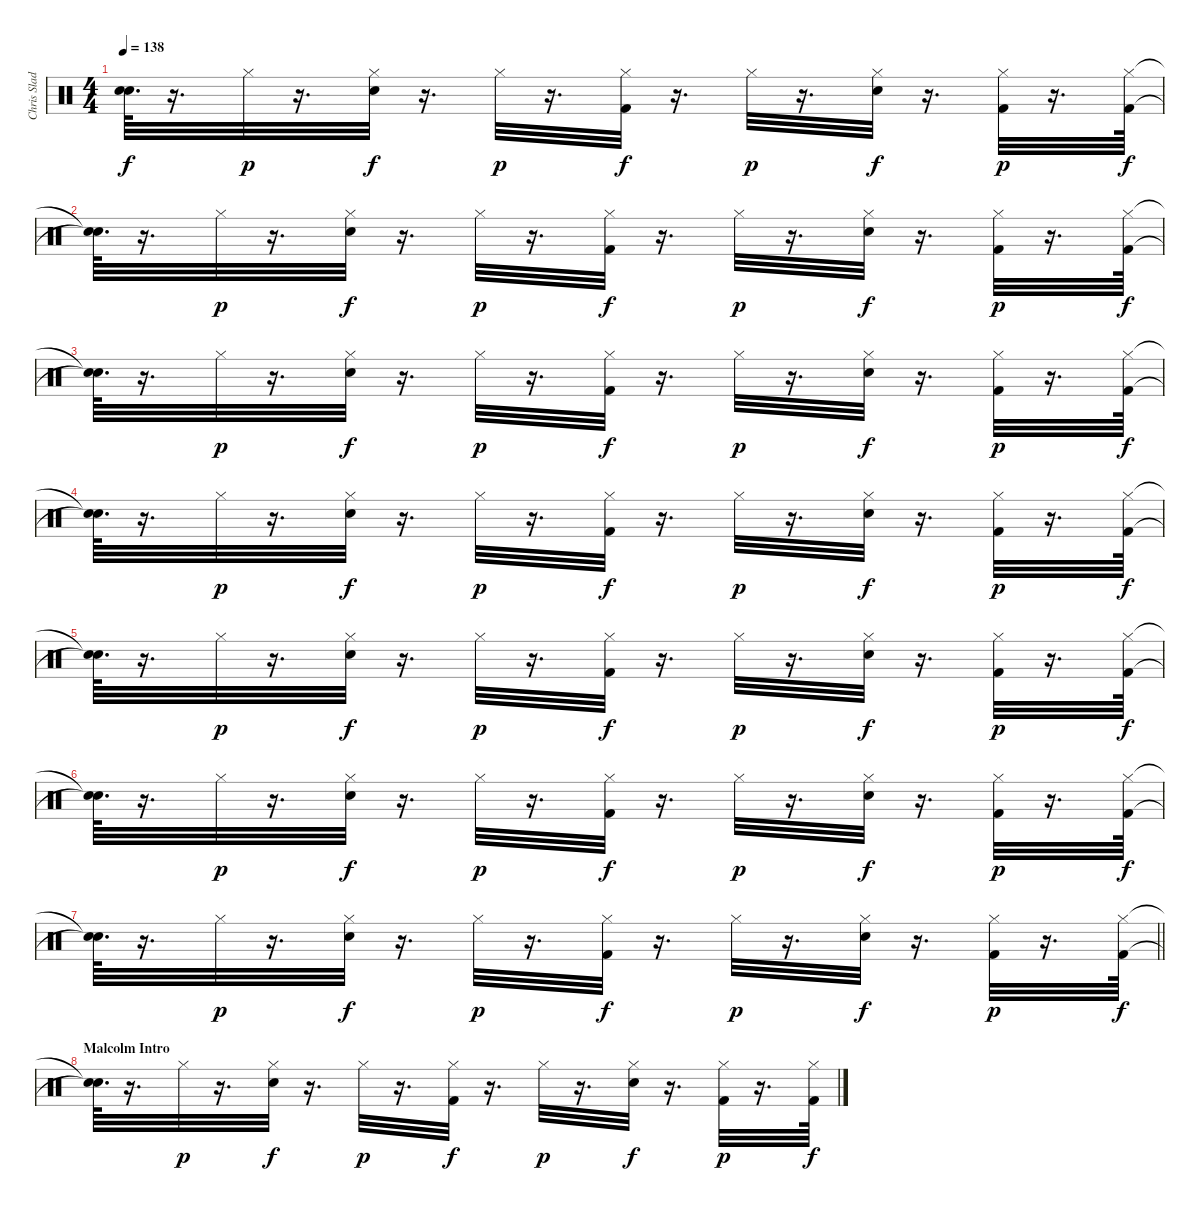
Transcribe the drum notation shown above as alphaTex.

\track ("Chris Slade" "Chris Slad") {instrument percussion}
\staff {score}
\articulation defaults
\ts (4 4)
\tempo 138
\clef neutral
\ks c
("Snare (hit)"{t} "Snare (hit)"{t}).64{d dy f} r.16{d} "Hi-Hat (closed)".32{dy p} r.16{d} ("Hi-Hat (closed)" "Electric Snare (hit)").32{dy f} r.16{d} "Hi-Hat (closed)".32{dy p} r.16{d} ("Hi-Hat (closed)" "Kick (hit) 2").32{dy f} r.16{d} "Hi-Hat (closed)".32{dy p} r.16{d} ("Hi-Hat (closed)" "Electric Snare (hit)").32{dy f} r.16{d} ("Hi-Hat (closed)" "Kick (hit) 2").32{dy p} r.16{d} ("Hi-Hat (closed)" "Kick (hit) 2").64{dy f} |
("Snare (hit)"{t} "Snare (hit)"{t}).64{d} r.16{d} "Hi-Hat (closed)".32{dy p} r.16{d} ("Hi-Hat (closed)" "Electric Snare (hit)").32{dy f} r.16{d} "Hi-Hat (closed)".32{dy p} r.16{d} ("Hi-Hat (closed)" "Kick (hit) 2").32{dy f} r.16{d} "Hi-Hat (closed)".32{dy p} r.16{d} ("Hi-Hat (closed)" "Electric Snare (hit)").32{dy f} r.16{d} ("Hi-Hat (closed)" "Kick (hit) 2").32{dy p} r.16{d} ("Hi-Hat (closed)" "Kick (hit) 2").64{dy f} |
("Snare (hit)"{t} "Snare (hit)"{t}).64{d} r.16{d} "Hi-Hat (closed)".32{dy p} r.16{d} ("Hi-Hat (closed)" "Electric Snare (hit)").32{dy f} r.16{d} "Hi-Hat (closed)".32{dy p} r.16{d} ("Hi-Hat (closed)" "Kick (hit) 2").32{dy f} r.16{d} "Hi-Hat (closed)".32{dy p} r.16{d} ("Hi-Hat (closed)" "Electric Snare (hit)").32{dy f} r.16{d} ("Hi-Hat (closed)" "Kick (hit) 2").32{dy p} r.16{d} ("Hi-Hat (closed)" "Kick (hit) 2").64{dy f} |
("Snare (hit)"{t} "Snare (hit)"{t}).64{d} r.16{d} "Hi-Hat (closed)".32{dy p} r.16{d} ("Hi-Hat (closed)" "Electric Snare (hit)").32{dy f} r.16{d} "Hi-Hat (closed)".32{dy p} r.16{d} ("Hi-Hat (closed)" "Kick (hit) 2").32{dy f} r.16{d} "Hi-Hat (closed)".32{dy p} r.16{d} ("Hi-Hat (closed)" "Electric Snare (hit)").32{dy f} r.16{d} ("Hi-Hat (closed)" "Kick (hit) 2").32{dy p} r.16{d} ("Hi-Hat (closed)" "Kick (hit) 2").64{dy f} |
("Snare (hit)"{t} "Snare (hit)"{t}).64{d} r.16{d} "Hi-Hat (closed)".32{dy p} r.16{d} ("Hi-Hat (closed)" "Electric Snare (hit)").32{dy f} r.16{d} "Hi-Hat (closed)".32{dy p} r.16{d} ("Hi-Hat (closed)" "Kick (hit) 2").32{dy f} r.16{d} "Hi-Hat (closed)".32{dy p} r.16{d} ("Hi-Hat (closed)" "Electric Snare (hit)").32{dy f} r.16{d} ("Hi-Hat (closed)" "Kick (hit) 2").32{dy p} r.16{d} ("Hi-Hat (closed)" "Kick (hit) 2").64{dy f} |
("Snare (hit)"{t} "Snare (hit)"{t}).64{d} r.16{d} "Hi-Hat (closed)".32{dy p} r.16{d} ("Hi-Hat (closed)" "Electric Snare (hit)").32{dy f} r.16{d} "Hi-Hat (closed)".32{dy p} r.16{d} ("Hi-Hat (closed)" "Kick (hit) 2").32{dy f} r.16{d} "Hi-Hat (closed)".32{dy p} r.16{d} ("Hi-Hat (closed)" "Electric Snare (hit)").32{dy f} r.16{d} ("Hi-Hat (closed)" "Kick (hit) 2").32{dy p} r.16{d} ("Hi-Hat (closed)" "Kick (hit) 2").64{dy f} |
\barLineRight lightlight
("Snare (hit)"{t} "Snare (hit)"{t}).64{d} r.16{d} "Hi-Hat (closed)".32{dy p} r.16{d} ("Hi-Hat (closed)" "Electric Snare (hit)").32{dy f} r.16{d} "Hi-Hat (closed)".32{dy p} r.16{d} ("Hi-Hat (closed)" "Kick (hit) 2").32{dy f} r.16{d} "Hi-Hat (closed)".32{dy p} r.16{d} ("Hi-Hat (closed)" "Electric Snare (hit)").32{dy f} r.16{d} ("Hi-Hat (closed)" "Kick (hit) 2").32{dy p} r.16{d} ("Hi-Hat (closed)" "Kick (hit) 2").64{dy f} |
\section ("" "Malcolm Intro")
("Snare (hit)"{t} "Snare (hit)"{t}).64{d} r.16{d} "Hi-Hat (closed)".32{dy p} r.16{d} ("Hi-Hat (closed)" "Electric Snare (hit)").32{dy f} r.16{d} "Hi-Hat (closed)".32{dy p} r.16{d} ("Hi-Hat (closed)" "Kick (hit) 2").32{dy f} r.16{d} "Hi-Hat (closed)".32{dy p} r.16{d} ("Hi-Hat (closed)" "Electric Snare (hit)").32{dy f} r.16{d} ("Hi-Hat (closed)" "Kick (hit) 2").32{dy p} r.16{d} ("Hi-Hat (closed)" "Kick (hit) 2").64{dy f}
